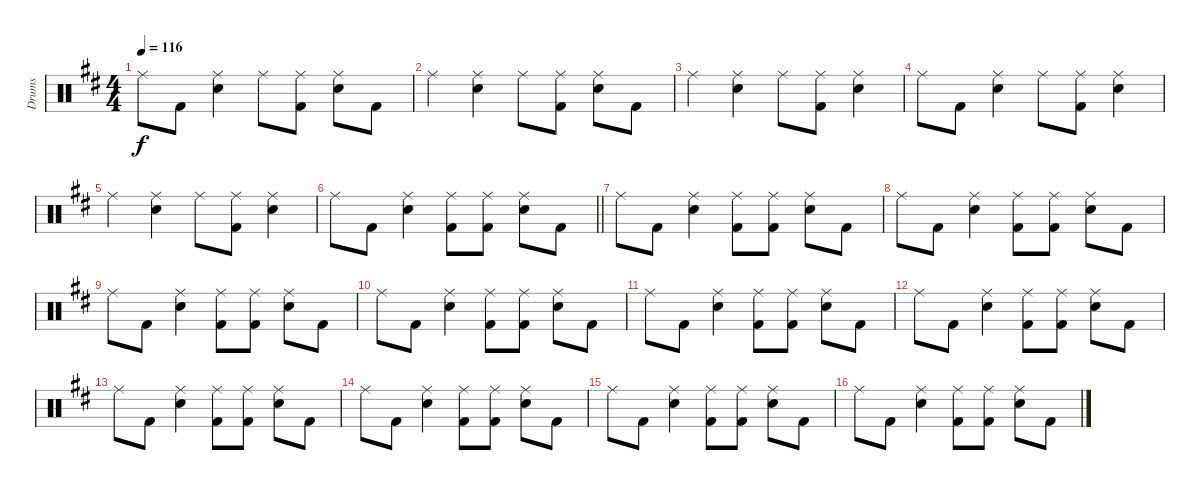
\track ("Drums" "Drums") {instrument percussion}
\staff {score}
\articulation defaults
\ts (4 4)
\tempo 116
\clef neutral
\ks d "Ride (middle)".8{dy f} "Kick (hit) 2".8
("Snare (hit) 2" "Ride (middle)").4 "Ride (middle)".8 ("Ride (middle)" "Kick (hit) 2").8 ("Ride (middle)" "Snare (hit) 2").8 "Kick (hit) 2".8 |
"Ride (middle)".4 ("Ride (middle)" "Snare (hit) 2").4 "Ride (middle)".8 ("Kick (hit) 2" "Ride (middle)").8 ("Snare (hit) 2" "Ride (middle)").8 "Kick (hit) 2".8 |
"Ride (middle)".4 ("Ride (middle)" "Snare (hit) 2").4 "Ride (middle)".8 ("Kick (hit) 2" "Ride (middle)").8 ("Snare (hit) 2" "Ride (middle)").4 |
"Ride (middle)".8 "Kick (hit) 2".8 ("Snare (hit) 2" "Ride (middle)").4 "Ride (middle)".8 ("Ride (middle)" "Kick (hit) 2").8 ("Ride (middle)" "Snare (hit) 2").4 |
"Ride (middle)".4 ("Ride (middle)" "Snare (hit) 2").4 "Ride (middle)".8 ("Kick (hit) 2" "Ride (middle)").8 ("Snare (hit) 2" "Ride (middle)").4 |
\barLineRight lightlight "Ride (middle)".8 "Kick (hit) 2".8
("Snare (hit) 2" "Ride (middle)").4 ("Ride (middle)" "Kick (hit) 2").8 ("Ride (middle)" "Kick (hit) 2").8 ("Ride (middle)" "Snare (hit) 2").8 "Kick (hit) 2".8 |
"Ride (middle)".8 "Kick (hit) 2".8 ("Snare (hit) 2" "Ride (middle)").4 ("Ride (middle)" "Kick (hit) 2").8 ("Ride (middle)" "Kick (hit) 2").8 ("Ride (middle)" "Snare (hit) 2").8 "Kick (hit) 2".8 |
"Ride (middle)".8 "Kick (hit) 2".8 ("Snare (hit) 2" "Ride (middle)").4 ("Ride (middle)" "Kick (hit) 2").8 ("Ride (middle)" "Kick (hit) 2").8 ("Ride (middle)" "Snare (hit) 2").8 "Kick (hit) 2".8 |
"Ride (middle)".8 "Kick (hit) 2".8 ("Snare (hit) 2" "Ride (middle)").4 ("Ride (middle)" "Kick (hit) 2").8 ("Ride (middle)" "Kick (hit) 2").8 ("Ride (middle)" "Snare (hit) 2").8 "Kick (hit) 2".8 |
"Ride (middle)".8 "Kick (hit) 2".8 ("Snare (hit) 2" "Ride (middle)").4 ("Ride (middle)" "Kick (hit) 2").8 ("Ride (middle)" "Kick (hit) 2").8 ("Ride (middle)" "Snare (hit) 2").8 "Kick (hit) 2".8 |
"Ride (middle)".8 "Kick (hit) 2".8 ("Snare (hit) 2" "Ride (middle)").4 ("Ride (middle)" "Kick (hit) 2").8 ("Ride (middle)" "Kick (hit) 2").8 ("Ride (middle)" "Snare (hit) 2").8 "Kick (hit) 2".8 |
"Ride (middle)".8 "Kick (hit) 2".8 ("Snare (hit) 2" "Ride (middle)").4 ("Ride (middle)" "Kick (hit) 2").8 ("Ride (middle)" "Kick (hit) 2").8 ("Ride (middle)" "Snare (hit) 2").8 "Kick (hit) 2".8 |
"Ride (middle)".8 "Kick (hit) 2".8 ("Snare (hit) 2" "Ride (middle)").4 ("Ride (middle)" "Kick (hit) 2").8 ("Ride (middle)" "Kick (hit) 2").8 ("Ride (middle)" "Snare (hit) 2").8 "Kick (hit) 2".8 |
"Ride (middle)".8 "Kick (hit) 2".8 ("Snare (hit) 2" "Ride (middle)").4 ("Ride (middle)" "Kick (hit) 2").8 ("Ride (middle)" "Kick (hit) 2").8 ("Ride (middle)" "Snare (hit) 2").8 "Kick (hit) 2".8 |
"Ride (middle)".8 "Kick (hit) 2".8 ("Snare (hit) 2" "Ride (middle)").4 ("Ride (middle)" "Kick (hit) 2").8 ("Ride (middle)" "Kick (hit) 2").8 ("Ride (middle)" "Snare (hit) 2").8 "Kick (hit) 2".8 |
"Ride (middle)".8 "Kick (hit) 2".8 ("Snare (hit) 2" "Ride (middle)").4 ("Ride (middle)" "Kick (hit) 2").8 ("Ride (middle)" "Kick (hit) 2").8 ("Ride (middle)" "Snare (hit) 2").8 "Kick (hit) 2".8
